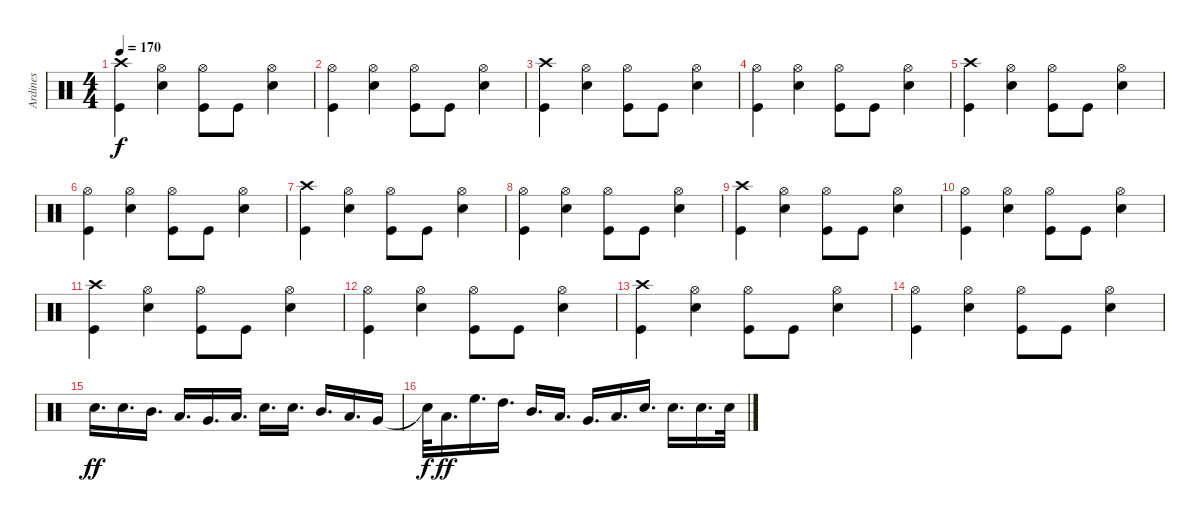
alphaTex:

\track ("Ardines" "Ardines") {instrument percussion}
\staff {score}
\articulation defaults
\ts (4 4)
\tempo 170
\clef neutral
\ks c
("Kick (hit)" "Crash high (hit)").4{dy f} ("Snare (hit) 2" "Hi-Hat (open)").4 ("Kick (hit)" "Hi-Hat (open)").8 "Kick (hit)".8 ("Snare (hit) 2" "Hi-Hat (open)").4 |
("Kick (hit)" "Hi-Hat (open)").4 ("Snare (hit) 2" "Hi-Hat (open)").4 ("Kick (hit)" "Hi-Hat (open)").8 "Kick (hit)".8 ("Snare (hit) 2" "Hi-Hat (open)").4 |
("Kick (hit)" "Crash high (hit)").4 ("Snare (hit) 2" "Hi-Hat (open)").4 ("Kick (hit)" "Hi-Hat (open)").8 "Kick (hit)".8 ("Snare (hit) 2" "Hi-Hat (open)").4 |
("Kick (hit)" "Hi-Hat (open)").4 ("Snare (hit) 2" "Hi-Hat (open)").4 ("Kick (hit)" "Hi-Hat (open)").8 "Kick (hit)".8 ("Snare (hit) 2" "Hi-Hat (open)").4 |
("Kick (hit)" "Crash high (hit)").4 ("Snare (hit) 2" "Hi-Hat (open)").4 ("Kick (hit)" "Hi-Hat (open)").8 "Kick (hit)".8 ("Snare (hit) 2" "Hi-Hat (open)").4 |
("Kick (hit)" "Hi-Hat (open)").4 ("Snare (hit) 2" "Hi-Hat (open)").4 ("Kick (hit)" "Hi-Hat (open)").8 "Kick (hit)".8 ("Snare (hit) 2" "Hi-Hat (open)").4 |
("Kick (hit)" "Crash high (hit)").4 ("Snare (hit) 2" "Hi-Hat (open)").4 ("Kick (hit)" "Hi-Hat (open)").8 "Kick (hit)".8 ("Snare (hit) 2" "Hi-Hat (open)").4 |
("Kick (hit)" "Hi-Hat (open)").4 ("Snare (hit) 2" "Hi-Hat (open)").4 ("Kick (hit)" "Hi-Hat (open)").8 "Kick (hit)".8 ("Snare (hit) 2" "Hi-Hat (open)").4 |
("Kick (hit)" "Crash high (hit)").4 ("Snare (hit) 2" "Hi-Hat (open)").4 ("Kick (hit)" "Hi-Hat (open)").8 "Kick (hit)".8 ("Snare (hit) 2" "Hi-Hat (open)").4 |
("Kick (hit)" "Hi-Hat (open)").4 ("Snare (hit) 2" "Hi-Hat (open)").4 ("Kick (hit)" "Hi-Hat (open)").8 "Kick (hit)".8 ("Snare (hit) 2" "Hi-Hat (open)").4 |
("Kick (hit)" "Crash high (hit)").4 ("Snare (hit) 2" "Hi-Hat (open)").4 ("Kick (hit)" "Hi-Hat (open)").8 "Kick (hit)".8 ("Snare (hit) 2" "Hi-Hat (open)").4 |
("Kick (hit)" "Hi-Hat (open)").4 ("Snare (hit) 2" "Hi-Hat (open)").4 ("Kick (hit)" "Hi-Hat (open)").8 "Kick (hit)".8 ("Snare (hit) 2" "Hi-Hat (open)").4 |
("Kick (hit)" "Crash high (hit)").4 ("Snare (hit) 2" "Hi-Hat (open)").4 ("Kick (hit)" "Hi-Hat (open)").8 "Kick (hit)".8 ("Snare (hit) 2" "Hi-Hat (open)").4 |
("Kick (hit)" "Hi-Hat (open)").4 ("Snare (hit) 2" "Hi-Hat (open)").4 ("Kick (hit)" "Hi-Hat (open)").8 "Kick (hit)".8 ("Snare (hit) 2" "Hi-Hat (open)").4 |
"Snare (hit) 2".16{d dy ff} "Snare (hit) 2".16{d} "Mid Tom (hit)".16{d} "Low Tom (hit)".16{d} "Very Low Tom (hit)".16{d} "Low Floor Tom (hit)".16{d} "Snare (hit) 2".16{d} "Snare (hit) 2".16{d} "Mid Tom (hit)".16{d} "Low Tom (hit)".16{d} "Very Low Tom (hit)".16 |
"Snare (hit)"{t}.32{dy f} "Low Floor Tom (hit)".16{d dy ff} "High Floor Tom (hit)".16{d} "High Tom (hit)".16{d} "Mid Tom (hit)".16{d} "Low Tom (hit)".16{d} "Very Low Tom (hit)".16{d} "Low Floor Tom (hit)".16{d} "Snare (hit) 2".16{d} "Snare (hit) 2".16{d} "Snare (hit) 2".16{d} "Snare (hit) 2".32
